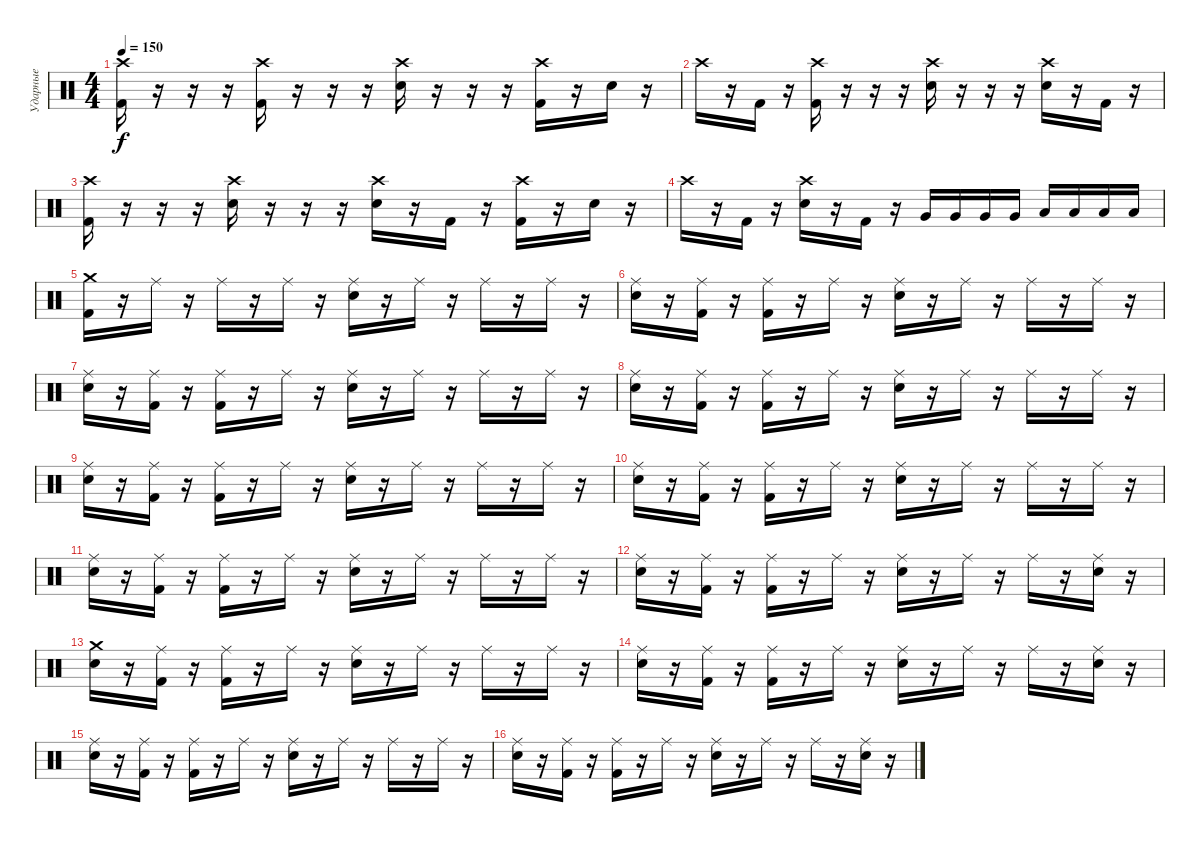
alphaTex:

\track ("Ударные" "Ударные") {instrument percussion}
\staff {score}
\articulation defaults
\ts (4 4)
\tempo 150
\clef neutral
\ks c
("Crash high (hit)" "Kick (hit) 2").16{dy f} r.16 r.16 r.16 ("Crash high (hit)" "Kick (hit) 2").16 r.16 r.16 r.16 ("Crash high (hit)" "Electric Snare (hit)").16 r.16 r.16 r.16 ("Crash high (hit)" "Kick (hit) 2").16 r.16 "Electric Snare (hit)".16 r.16 |
"Crash high (hit)".16 r.16 "Kick (hit) 2".16 r.16 ("Crash high (hit)" "Kick (hit) 2").16 r.16 r.16 r.16 ("Crash high (hit)" "Electric Snare (hit)").16 r.16 r.16 r.16 ("Crash high (hit)" "Electric Snare (hit)").16 r.16 "Kick (hit) 2".16 r.16 |
("Crash high (hit)" "Kick (hit) 2").16 r.16 r.16 r.16 ("Crash high (hit)" "Electric Snare (hit)").16 r.16 r.16 r.16 ("Crash high (hit)" "Electric Snare (hit)").16 r.16 "Kick (hit) 2".16 r.16 ("Crash high (hit)" "Kick (hit) 2").16 r.16 "Electric Snare (hit)".16 r.16 |
"Crash high (hit)".16 r.16 "Kick (hit) 2".16 r.16 ("Crash high (hit)" "Electric Snare (hit)").16 r.16 "Kick (hit) 2".16 r.16 "Very Low Tom (hit)".16 "Very Low Tom (hit)".16 "Very Low Tom (hit)".16 "Very Low Tom (hit)".16 "Low Floor Tom (hit)".16 "Low Floor Tom (hit)".16 "Low Floor Tom (hit)".16 "Low Floor Tom (hit)".16 |
("Crash medium (hit)" "Kick (hit) 2").16 r.16 "Ride (middle)".16 r.16 "Ride (middle)".16 r.16 "Ride (middle)".16 r.16 ("Ride (middle)" "Electric Snare (hit)").16 r.16 "Ride (middle)".16 r.16 "Ride (middle)".16 r.16 "Ride (middle)".16 r.16 |
("Ride (middle)" "Electric Snare (hit)").16 r.16 ("Ride (middle)" "Kick (hit) 2").16 r.16 ("Ride (middle)" "Kick (hit) 2").16 r.16 "Ride (middle)".16 r.16 ("Ride (middle)" "Electric Snare (hit)").16 r.16 "Ride (middle)".16 r.16 "Ride (middle)".16 r.16 "Ride (middle)".16 r.16 |
("Ride (middle)" "Electric Snare (hit)").16 r.16 ("Ride (middle)" "Kick (hit) 2").16 r.16 ("Ride (middle)" "Kick (hit) 2").16 r.16 "Ride (middle)".16 r.16 ("Ride (middle)" "Electric Snare (hit)").16 r.16 "Ride (middle)".16 r.16 "Ride (middle)".16 r.16 "Ride (middle)".16 r.16 |
("Ride (middle)" "Electric Snare (hit)").16 r.16 ("Ride (middle)" "Kick (hit) 2").16 r.16 ("Ride (middle)" "Kick (hit) 2").16 r.16 "Ride (middle)".16 r.16 ("Ride (middle)" "Electric Snare (hit)").16 r.16 "Ride (middle)".16 r.16 "Ride (middle)".16 r.16 "Ride (middle)".16 r.16 |
("Ride (middle)" "Electric Snare (hit)").16 r.16 ("Ride (middle)" "Kick (hit) 2").16 r.16 ("Ride (middle)" "Kick (hit) 2").16 r.16 "Ride (middle)".16 r.16 ("Ride (middle)" "Electric Snare (hit)").16 r.16 "Ride (middle)".16 r.16 "Ride (middle)".16 r.16 "Ride (middle)".16 r.16 |
("Ride (middle)" "Electric Snare (hit)").16 r.16 ("Ride (middle)" "Kick (hit) 2").16 r.16 ("Ride (middle)" "Kick (hit) 2").16 r.16 "Ride (middle)".16 r.16 ("Ride (middle)" "Electric Snare (hit)").16 r.16 "Ride (middle)".16 r.16 "Ride (middle)".16 r.16 "Ride (middle)".16 r.16 |
("Ride (middle)" "Electric Snare (hit)").16 r.16 ("Ride (middle)" "Kick (hit) 2").16 r.16 ("Ride (middle)" "Kick (hit) 2").16 r.16 "Ride (middle)".16 r.16 ("Ride (middle)" "Electric Snare (hit)").16 r.16 "Ride (middle)".16 r.16 "Ride (middle)".16 r.16 "Ride (middle)".16 r.16 |
("Ride (middle)" "Electric Snare (hit)").16 r.16 ("Ride (middle)" "Kick (hit) 2").16 r.16 ("Ride (middle)" "Kick (hit) 2").16 r.16 "Ride (middle)".16 r.16 ("Ride (middle)" "Electric Snare (hit)").16 r.16 "Ride (middle)".16 r.16 "Ride (middle)".16 r.16 ("Ride (middle)" "Electric Snare (hit)").16 r.16 |
("Crash medium (hit)" "Electric Snare (hit)").16 r.16 ("Ride (middle)" "Kick (hit) 2").16 r.16 ("Ride (middle)" "Kick (hit) 2").16 r.16 "Ride (middle)".16 r.16 ("Ride (middle)" "Electric Snare (hit)").16 r.16 "Ride (middle)".16 r.16 "Ride (middle)".16 r.16 "Ride (middle)".16 r.16 |
("Ride (middle)" "Electric Snare (hit)").16 r.16 ("Ride (middle)" "Kick (hit) 2").16 r.16 ("Ride (middle)" "Kick (hit) 2").16 r.16 "Ride (middle)".16 r.16 ("Ride (middle)" "Electric Snare (hit)").16 r.16 "Ride (middle)".16 r.16 "Ride (middle)".16 r.16 ("Ride (middle)" "Electric Snare (hit)").16 r.16 |
("Ride (middle)" "Electric Snare (hit)").16 r.16 ("Ride (middle)" "Kick (hit) 2").16 r.16 ("Ride (middle)" "Kick (hit) 2").16 r.16 "Ride (middle)".16 r.16 ("Ride (middle)" "Electric Snare (hit)").16 r.16 "Ride (middle)".16 r.16 "Ride (middle)".16 r.16 "Ride (middle)".16 r.16 |
("Ride (middle)" "Electric Snare (hit)").16 r.16 ("Ride (middle)" "Kick (hit) 2").16 r.16 ("Ride (middle)" "Kick (hit) 2").16 r.16 "Ride (middle)".16 r.16 ("Ride (middle)" "Electric Snare (hit)").16 r.16 "Ride (middle)".16 r.16 "Ride (middle)".16 r.16 ("Ride (middle)" "Electric Snare (hit)").16 r.16
